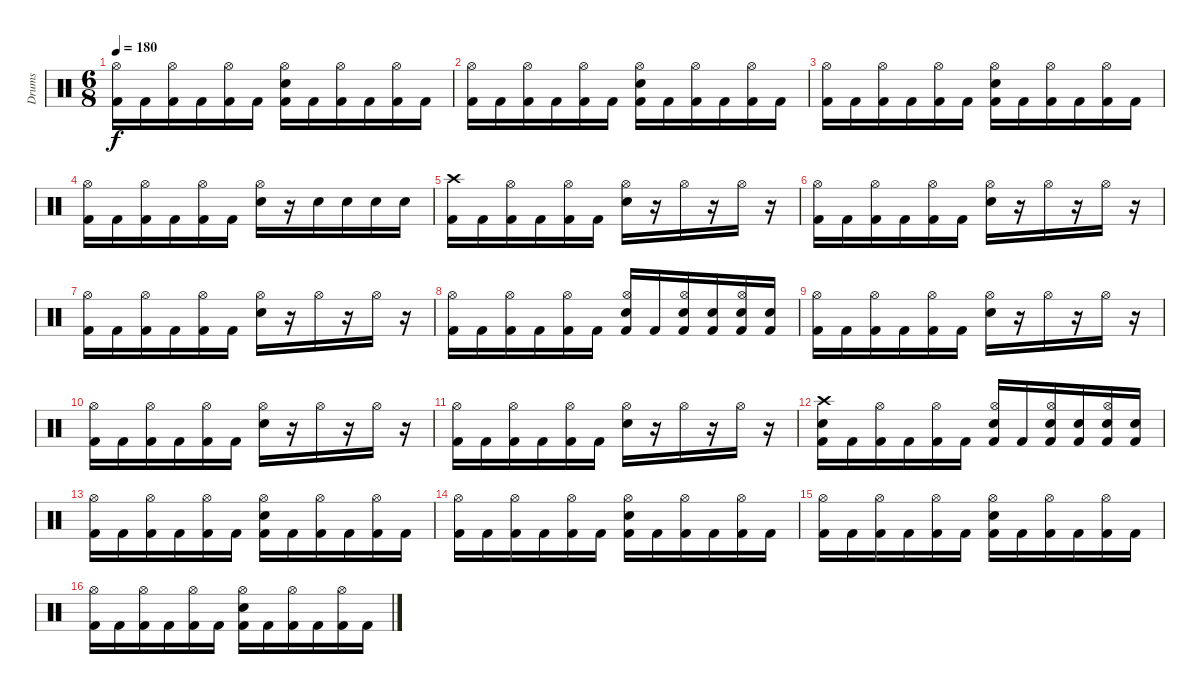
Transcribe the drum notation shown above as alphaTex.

\track ("Drums" "Drums") {instrument percussion}
\staff {score}
\articulation defaults
\ts (6 8)
\tempo 180
\clef neutral
\ks c
("Kick (hit) 2" "Hi-Hat (open)").16{dy f} "Kick (hit) 2".16 ("Kick (hit) 2" "Hi-Hat (open)").16 "Kick (hit) 2".16 ("Kick (hit) 2" "Hi-Hat (open)").16 "Kick (hit) 2".16 ("Kick (hit) 2" "Electric Snare (hit)" "Hi-Hat (open)").16 "Kick (hit) 2".16 ("Kick (hit) 2" "Hi-Hat (open)").16 "Kick (hit) 2".16 ("Kick (hit) 2" "Hi-Hat (open)").16 "Kick (hit) 2".16 |
("Kick (hit) 2" "Hi-Hat (open)").16 "Kick (hit) 2".16 ("Kick (hit) 2" "Hi-Hat (open)").16 "Kick (hit) 2".16 ("Kick (hit) 2" "Hi-Hat (open)").16 "Kick (hit) 2".16 ("Kick (hit) 2" "Electric Snare (hit)" "Hi-Hat (open)").16 "Kick (hit) 2".16 ("Kick (hit) 2" "Hi-Hat (open)").16 "Kick (hit) 2".16 ("Kick (hit) 2" "Hi-Hat (open)").16 "Kick (hit) 2".16 |
("Kick (hit) 2" "Hi-Hat (open)").16 "Kick (hit) 2".16 ("Kick (hit) 2" "Hi-Hat (open)").16 "Kick (hit) 2".16 ("Kick (hit) 2" "Hi-Hat (open)").16 "Kick (hit) 2".16 ("Kick (hit) 2" "Electric Snare (hit)" "Hi-Hat (open)").16 "Kick (hit) 2".16 ("Kick (hit) 2" "Hi-Hat (open)").16 "Kick (hit) 2".16 ("Kick (hit) 2" "Hi-Hat (open)").16 "Kick (hit) 2".16 |
("Kick (hit) 2" "Hi-Hat (open)").16 "Kick (hit) 2".16 ("Kick (hit) 2" "Hi-Hat (open)").16 "Kick (hit) 2".16 ("Kick (hit) 2" "Hi-Hat (open)").16 "Kick (hit) 2".16 ("Electric Snare (hit)" "Hi-Hat (open)").16 r.16 "Electric Snare (hit)".16 "Electric Snare (hit)".16 "Electric Snare (hit)".16 "Electric Snare (hit)".16 |
("Kick (hit) 2" "Crash high (hit)").16 "Kick (hit) 2".16 ("Kick (hit) 2" "Hi-Hat (open)").16 "Kick (hit) 2".16 ("Kick (hit) 2" "Hi-Hat (open)").16 "Kick (hit) 2".16 ("Electric Snare (hit)" "Hi-Hat (open)").16 r.16 "Hi-Hat (open)".16 r.16 "Hi-Hat (open)".16 r.16 |
("Kick (hit) 2" "Hi-Hat (open)").16 "Kick (hit) 2".16 ("Kick (hit) 2" "Hi-Hat (open)").16 "Kick (hit) 2".16 ("Kick (hit) 2" "Hi-Hat (open)").16 "Kick (hit) 2".16 ("Electric Snare (hit)" "Hi-Hat (open)").16 r.16 "Hi-Hat (open)".16 r.16 "Hi-Hat (open)".16 r.16 |
("Kick (hit) 2" "Hi-Hat (open)").16 "Kick (hit) 2".16 ("Kick (hit) 2" "Hi-Hat (open)").16 "Kick (hit) 2".16 ("Kick (hit) 2" "Hi-Hat (open)").16 "Kick (hit) 2".16 ("Electric Snare (hit)" "Hi-Hat (open)").16 r.16 "Hi-Hat (open)".16 r.16 "Hi-Hat (open)".16 r.16 |
("Kick (hit) 2" "Hi-Hat (open)").16 "Kick (hit) 2".16 ("Kick (hit) 2" "Hi-Hat (open)").16 "Kick (hit) 2".16 ("Kick (hit) 2" "Hi-Hat (open)").16 "Kick (hit) 2".16 ("Kick (hit) 2" "Electric Snare (hit)" "Hi-Hat (open)").16 "Kick (hit) 2".16 ("Kick (hit) 2" "Electric Snare (hit)" "Hi-Hat (open)").16 ("Kick (hit) 2" "Electric Snare (hit)").16 ("Kick (hit) 2" "Electric Snare (hit)" "Hi-Hat (open)").16 ("Kick (hit) 2" "Electric Snare (hit)").16 |
("Kick (hit) 2" "Hi-Hat (open)").16 "Kick (hit) 2".16 ("Kick (hit) 2" "Hi-Hat (open)").16 "Kick (hit) 2".16 ("Kick (hit) 2" "Hi-Hat (open)").16 "Kick (hit) 2".16 ("Electric Snare (hit)" "Hi-Hat (open)").16 r.16 "Hi-Hat (open)".16 r.16 "Hi-Hat (open)".16 r.16 |
("Kick (hit) 2" "Hi-Hat (open)").16 "Kick (hit) 2".16 ("Kick (hit) 2" "Hi-Hat (open)").16 "Kick (hit) 2".16 ("Kick (hit) 2" "Hi-Hat (open)").16 "Kick (hit) 2".16 ("Electric Snare (hit)" "Hi-Hat (open)").16 r.16 "Hi-Hat (open)".16 r.16 "Hi-Hat (open)".16 r.16 |
("Kick (hit) 2" "Hi-Hat (open)").16 "Kick (hit) 2".16 ("Kick (hit) 2" "Hi-Hat (open)").16 "Kick (hit) 2".16 ("Kick (hit) 2" "Hi-Hat (open)").16 "Kick (hit) 2".16 ("Electric Snare (hit)" "Hi-Hat (open)").16 r.16 "Hi-Hat (open)".16 r.16 "Hi-Hat (open)".16 r.16 |
("Kick (hit) 2" "Electric Snare (hit)" "Crash high (hit)").16 "Kick (hit) 2".16 ("Kick (hit) 2" "Hi-Hat (open)").16 "Kick (hit) 2".16 ("Kick (hit) 2" "Hi-Hat (open)").16 "Kick (hit) 2".16 ("Kick (hit) 2" "Electric Snare (hit)" "Hi-Hat (open)").16 "Kick (hit) 2".16 ("Kick (hit) 2" "Electric Snare (hit)" "Hi-Hat (open)").16 ("Kick (hit) 2" "Electric Snare (hit)").16 ("Kick (hit) 2" "Electric Snare (hit)" "Hi-Hat (open)").16 ("Kick (hit) 2" "Electric Snare (hit)").16 |
("Kick (hit) 2" "Hi-Hat (open)").16 "Kick (hit) 2".16 ("Kick (hit) 2" "Hi-Hat (open)").16 "Kick (hit) 2".16 ("Kick (hit) 2" "Hi-Hat (open)").16 "Kick (hit) 2".16 ("Kick (hit) 2" "Electric Snare (hit)" "Hi-Hat (open)").16 "Kick (hit) 2".16 ("Kick (hit) 2" "Hi-Hat (open)").16 "Kick (hit) 2".16 ("Kick (hit) 2" "Hi-Hat (open)").16 "Kick (hit) 2".16 |
("Kick (hit) 2" "Hi-Hat (open)").16 "Kick (hit) 2".16 ("Kick (hit) 2" "Hi-Hat (open)").16 "Kick (hit) 2".16 ("Kick (hit) 2" "Hi-Hat (open)").16 "Kick (hit) 2".16 ("Kick (hit) 2" "Electric Snare (hit)" "Hi-Hat (open)").16 "Kick (hit) 2".16 ("Kick (hit) 2" "Hi-Hat (open)").16 "Kick (hit) 2".16 ("Kick (hit) 2" "Hi-Hat (open)").16 "Kick (hit) 2".16 |
("Kick (hit) 2" "Hi-Hat (open)").16 "Kick (hit) 2".16 ("Kick (hit) 2" "Hi-Hat (open)").16 "Kick (hit) 2".16 ("Kick (hit) 2" "Hi-Hat (open)").16 "Kick (hit) 2".16 ("Kick (hit) 2" "Electric Snare (hit)" "Hi-Hat (open)").16 "Kick (hit) 2".16 ("Kick (hit) 2" "Hi-Hat (open)").16 "Kick (hit) 2".16 ("Kick (hit) 2" "Hi-Hat (open)").16 "Kick (hit) 2".16 |
("Kick (hit) 2" "Hi-Hat (open)").16 "Kick (hit) 2".16 ("Kick (hit) 2" "Hi-Hat (open)").16 "Kick (hit) 2".16 ("Kick (hit) 2" "Hi-Hat (open)").16 "Kick (hit) 2".16 ("Kick (hit) 2" "Electric Snare (hit)" "Hi-Hat (open)").16 "Kick (hit) 2".16 ("Kick (hit) 2" "Hi-Hat (open)").16 "Kick (hit) 2".16 ("Kick (hit) 2" "Hi-Hat (open)").16 "Kick (hit) 2".16
